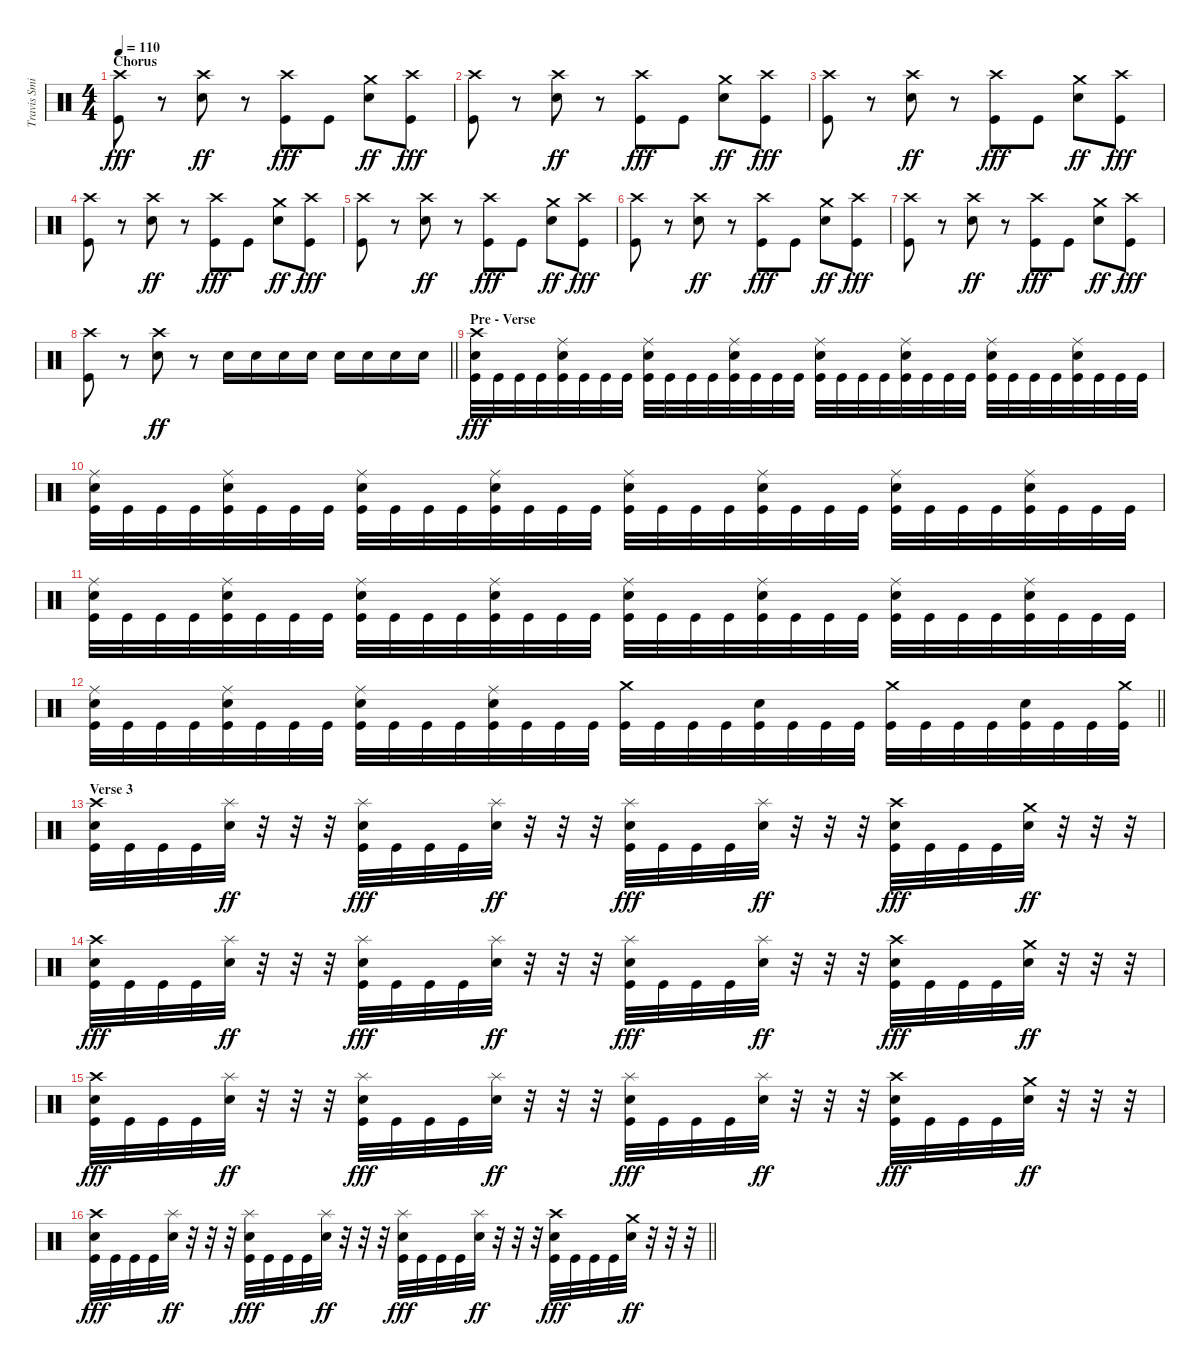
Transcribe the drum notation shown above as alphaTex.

\track ("Travis Smith" "Travis Smi") {instrument percussion}
\staff {score}
\articulation defaults
\ts (4 4)
\section ("" "Chorus")
\tempo 110
\clef neutral
\ks c
("Crash high (hit)" "Kick (hit)").8{dy fff} r.8 ("Crash high (hit)" "Electric Snare (hit)").8{dy ff} r.8 ("Crash high (hit)" "Kick (hit)").8{dy fff} "Kick (hit)".8 ("Crash medium (hit)" "Electric Snare (hit)").8{dy ff} ("Crash high (hit)" "Kick (hit)").8{dy fff} |
("Crash high (hit)" "Kick (hit)").8 r.8 ("Crash high (hit)" "Electric Snare (hit)").8{dy ff} r.8 ("Crash high (hit)" "Kick (hit)").8{dy fff} "Kick (hit)".8 ("Crash medium (hit)" "Electric Snare (hit)").8{dy ff} ("Crash high (hit)" "Kick (hit)").8{dy fff} |
("Crash high (hit)" "Kick (hit)").8 r.8 ("Crash high (hit)" "Electric Snare (hit)").8{dy ff} r.8 ("Crash high (hit)" "Kick (hit)").8{dy fff} "Kick (hit)".8 ("Crash medium (hit)" "Electric Snare (hit)").8{dy ff} ("Crash high (hit)" "Kick (hit)").8{dy fff} |
("Crash high (hit)" "Kick (hit)").8 r.8 ("Crash high (hit)" "Electric Snare (hit)").8{dy ff} r.8 ("Crash high (hit)" "Kick (hit)").8{dy fff} "Kick (hit)".8 ("Crash medium (hit)" "Electric Snare (hit)").8{dy ff} ("Crash high (hit)" "Kick (hit)").8{dy fff} |
("Crash high (hit)" "Kick (hit)").8 r.8 ("Crash high (hit)" "Electric Snare (hit)").8{dy ff} r.8 ("Crash high (hit)" "Kick (hit)").8{dy fff} "Kick (hit)".8 ("Crash medium (hit)" "Electric Snare (hit)").8{dy ff} ("Crash high (hit)" "Kick (hit)").8{dy fff} |
("Crash high (hit)" "Kick (hit)").8 r.8 ("Crash high (hit)" "Electric Snare (hit)").8{dy ff} r.8 ("Crash high (hit)" "Kick (hit)").8{dy fff} "Kick (hit)".8 ("Crash medium (hit)" "Electric Snare (hit)").8{dy ff} ("Crash high (hit)" "Kick (hit)").8{dy fff} |
("Crash high (hit)" "Kick (hit)").8 r.8 ("Crash high (hit)" "Electric Snare (hit)").8{dy ff} r.8 ("Crash high (hit)" "Kick (hit)").8{dy fff} "Kick (hit)".8 ("Crash medium (hit)" "Electric Snare (hit)").8{dy ff} ("Crash high (hit)" "Kick (hit)").8{dy fff} |
\barLineRight lightlight
("Crash high (hit)" "Kick (hit)").8 r.8 ("Crash high (hit)" "Electric Snare (hit)").8{dy ff} r.8 "Electric Snare (hit)".16 "Electric Snare (hit)".16 "Electric Snare (hit)".16 "Electric Snare (hit)".16 "Electric Snare (hit)".16 "Electric Snare (hit)".16 "Electric Snare (hit)".16 "Electric Snare (hit)".16 |
\section ("" "Pre - Verse")
("Crash high (hit)" "Electric Snare (hit)" "Kick (hit)").32{dy fff} "Kick (hit)".32 "Kick (hit)".32 "Kick (hit)".32 ("Ride (middle)" "Electric Snare (hit)" "Kick (hit)").32 "Kick (hit)".32 "Kick (hit)".32 "Kick (hit)".32 ("Ride (middle)" "Electric Snare (hit)" "Kick (hit)").32 "Kick (hit)".32 "Kick (hit)".32 "Kick (hit)".32 ("Ride (middle)" "Electric Snare (hit)" "Kick (hit)").32 "Kick (hit)".32 "Kick (hit)".32 "Kick (hit)".32 ("Ride (middle)" "Electric Snare (hit)" "Kick (hit)").32 "Kick (hit)".32 "Kick (hit)".32 "Kick (hit)".32 ("Ride (middle)" "Electric Snare (hit)" "Kick (hit)").32 "Kick (hit)".32 "Kick (hit)".32 "Kick (hit)".32 ("Ride (middle)" "Electric Snare (hit)" "Kick (hit)").32 "Kick (hit)".32 "Kick (hit)".32 "Kick (hit)".32 ("Ride (middle)" "Electric Snare (hit)" "Kick (hit)").32 "Kick (hit)".32 "Kick (hit)".32 "Kick (hit)".32 |
("Ride (middle)" "Electric Snare (hit)" "Kick (hit)").32 "Kick (hit)".32 "Kick (hit)".32 "Kick (hit)".32 ("Ride (middle)" "Electric Snare (hit)" "Kick (hit)").32 "Kick (hit)".32 "Kick (hit)".32 "Kick (hit)".32 ("Ride (middle)" "Electric Snare (hit)" "Kick (hit)").32 "Kick (hit)".32 "Kick (hit)".32 "Kick (hit)".32 ("Ride (middle)" "Electric Snare (hit)" "Kick (hit)").32 "Kick (hit)".32 "Kick (hit)".32 "Kick (hit)".32 ("Ride (middle)" "Electric Snare (hit)" "Kick (hit)").32 "Kick (hit)".32 "Kick (hit)".32 "Kick (hit)".32 ("Ride (middle)" "Electric Snare (hit)" "Kick (hit)").32 "Kick (hit)".32 "Kick (hit)".32 "Kick (hit)".32 ("Ride (middle)" "Electric Snare (hit)" "Kick (hit)").32 "Kick (hit)".32 "Kick (hit)".32 "Kick (hit)".32 ("Ride (middle)" "Electric Snare (hit)" "Kick (hit)").32 "Kick (hit)".32 "Kick (hit)".32 "Kick (hit)".32 |
("Ride (middle)" "Electric Snare (hit)" "Kick (hit)").32 "Kick (hit)".32 "Kick (hit)".32 "Kick (hit)".32 ("Ride (middle)" "Electric Snare (hit)" "Kick (hit)").32 "Kick (hit)".32 "Kick (hit)".32 "Kick (hit)".32 ("Ride (middle)" "Electric Snare (hit)" "Kick (hit)").32 "Kick (hit)".32 "Kick (hit)".32 "Kick (hit)".32 ("Ride (middle)" "Electric Snare (hit)" "Kick (hit)").32 "Kick (hit)".32 "Kick (hit)".32 "Kick (hit)".32 ("Ride (middle)" "Electric Snare (hit)" "Kick (hit)").32 "Kick (hit)".32 "Kick (hit)".32 "Kick (hit)".32 ("Ride (middle)" "Electric Snare (hit)" "Kick (hit)").32 "Kick (hit)".32 "Kick (hit)".32 "Kick (hit)".32 ("Ride (middle)" "Electric Snare (hit)" "Kick (hit)").32 "Kick (hit)".32 "Kick (hit)".32 "Kick (hit)".32 ("Ride (middle)" "Electric Snare (hit)" "Kick (hit)").32 "Kick (hit)".32 "Kick (hit)".32 "Kick (hit)".32 |
\barLineRight lightlight
("Ride (middle)" "Electric Snare (hit)" "Kick (hit)").32 "Kick (hit)".32 "Kick (hit)".32 "Kick (hit)".32 ("Ride (middle)" "Electric Snare (hit)" "Kick (hit)").32 "Kick (hit)".32 "Kick (hit)".32 "Kick (hit)".32 ("Ride (middle)" "Electric Snare (hit)" "Kick (hit)").32 "Kick (hit)".32 "Kick (hit)".32 "Kick (hit)".32 ("Ride (middle)" "Electric Snare (hit)" "Kick (hit)").32 "Kick (hit)".32 "Kick (hit)".32 "Kick (hit)".32 ("Crash medium (hit)" "Kick (hit)").32 "Kick (hit)".32 "Kick (hit)".32 "Kick (hit)".32 ("Electric Snare (hit)" "Kick (hit)").32 "Kick (hit)".32 "Kick (hit)".32 "Kick (hit)".32 ("Crash medium (hit)" "Kick (hit)").32 "Kick (hit)".32 "Kick (hit)".32 "Kick (hit)".32 ("Electric Snare (hit)" "Kick (hit)").32 "Kick (hit)".32 "Kick (hit)".32 ("Crash medium (hit)" "Kick (hit)").32 |
\section ("" "Verse 3")
("Crash high (hit)" "Electric Snare (hit)" "Kick (hit)").32 "Kick (hit)".32 "Kick (hit)".32 "Kick (hit)".32 ("Splash (hit)" "Electric Snare (hit)").32{dy ff} r.32 r.32 r.32 ("Splash (hit)" "Electric Snare (hit)" "Kick (hit)").32{dy fff} "Kick (hit)".32 "Kick (hit)".32 "Kick (hit)".32 ("Splash (hit)" "Electric Snare (hit)").32{dy ff} r.32 r.32 r.32 ("Splash (hit)" "Electric Snare (hit)" "Kick (hit)").32{dy fff} "Kick (hit)".32 "Kick (hit)".32 "Kick (hit)".32 ("Splash (hit)" "Electric Snare (hit)").32{dy ff} r.32 r.32 r.32 ("Crash high (hit)" "Electric Snare (hit)" "Kick (hit)").32{dy fff} "Kick (hit)".32 "Kick (hit)".32 "Kick (hit)".32 ("Crash medium (hit)" "Electric Snare (hit)").32{dy ff} r.32 r.32 r.32 |
("Crash high (hit)" "Electric Snare (hit)" "Kick (hit)").32{dy fff} "Kick (hit)".32 "Kick (hit)".32 "Kick (hit)".32 ("Splash (hit)" "Electric Snare (hit)").32{dy ff} r.32 r.32 r.32 ("Splash (hit)" "Electric Snare (hit)" "Kick (hit)").32{dy fff} "Kick (hit)".32 "Kick (hit)".32 "Kick (hit)".32 ("Splash (hit)" "Electric Snare (hit)").32{dy ff} r.32 r.32 r.32 ("Splash (hit)" "Electric Snare (hit)" "Kick (hit)").32{dy fff} "Kick (hit)".32 "Kick (hit)".32 "Kick (hit)".32 ("Splash (hit)" "Electric Snare (hit)").32{dy ff} r.32 r.32 r.32 ("Crash high (hit)" "Electric Snare (hit)" "Kick (hit)").32{dy fff} "Kick (hit)".32 "Kick (hit)".32 "Kick (hit)".32 ("Crash medium (hit)" "Electric Snare (hit)").32{dy ff} r.32 r.32 r.32 |
("Crash high (hit)" "Electric Snare (hit)" "Kick (hit)").32{dy fff} "Kick (hit)".32 "Kick (hit)".32 "Kick (hit)".32 ("Splash (hit)" "Electric Snare (hit)").32{dy ff} r.32 r.32 r.32 ("Splash (hit)" "Electric Snare (hit)" "Kick (hit)").32{dy fff} "Kick (hit)".32 "Kick (hit)".32 "Kick (hit)".32 ("Splash (hit)" "Electric Snare (hit)").32{dy ff} r.32 r.32 r.32 ("Splash (hit)" "Electric Snare (hit)" "Kick (hit)").32{dy fff} "Kick (hit)".32 "Kick (hit)".32 "Kick (hit)".32 ("Splash (hit)" "Electric Snare (hit)").32{dy ff} r.32 r.32 r.32 ("Crash high (hit)" "Electric Snare (hit)" "Kick (hit)").32{dy fff} "Kick (hit)".32 "Kick (hit)".32 "Kick (hit)".32 ("Crash medium (hit)" "Electric Snare (hit)").32{dy ff} r.32 r.32 r.32 |
\barLineRight lightlight
("Crash high (hit)" "Electric Snare (hit)" "Kick (hit)").32{dy fff} "Kick (hit)".32 "Kick (hit)".32 "Kick (hit)".32 ("Splash (hit)" "Electric Snare (hit)").32{dy ff} r.32 r.32 r.32 ("Splash (hit)" "Electric Snare (hit)" "Kick (hit)").32{dy fff} "Kick (hit)".32 "Kick (hit)".32 "Kick (hit)".32 ("Splash (hit)" "Electric Snare (hit)").32{dy ff} r.32 r.32 r.32 ("Splash (hit)" "Electric Snare (hit)" "Kick (hit)").32{dy fff} "Kick (hit)".32 "Kick (hit)".32 "Kick (hit)".32 ("Splash (hit)" "Electric Snare (hit)").32{dy ff} r.32 r.32 r.32 ("Crash high (hit)" "Electric Snare (hit)" "Kick (hit)").32{dy fff} "Kick (hit)".32 "Kick (hit)".32 "Kick (hit)".32 ("Crash medium (hit)" "Electric Snare (hit)").32{dy ff} r.32 r.32 r.32
